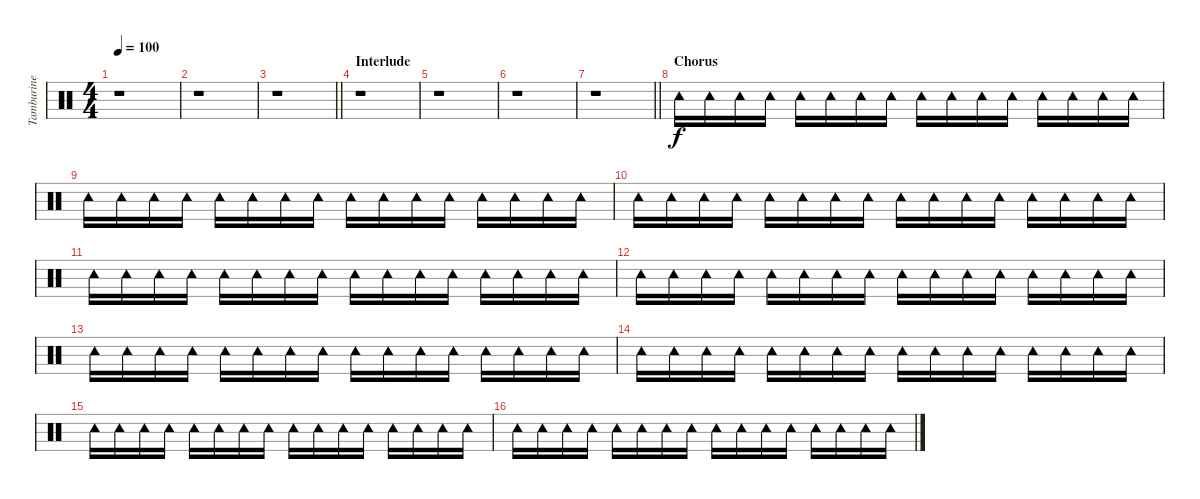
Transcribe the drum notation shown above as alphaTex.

\track ("Tamburine" "Tamburine") {instrument percussion}
\staff {score}
\articulation defaults
\ts (4 4)
\tempo 100
\clef neutral
\ks c
r.1{dy f} |
r.1 |
\barLineRight lightlight
r.1 |
\section ("" "Interlude")
r.1 |
r.1 |
r.1 |
\barLineRight lightlight
r.1 |
\section ("" "Chorus")
"Tambourine (hit)".16 "Tambourine (hit)".16 "Tambourine (hit)".16 "Tambourine (hit)".16 "Tambourine (hit)".16 "Tambourine (hit)".16 "Tambourine (hit)".16 "Tambourine (hit)".16 "Tambourine (hit)".16 "Tambourine (hit)".16 "Tambourine (hit)".16 "Tambourine (hit)".16 "Tambourine (hit)".16 "Tambourine (hit)".16 "Tambourine (hit)".16 "Tambourine (hit)".16 |
"Tambourine (hit)".16 "Tambourine (hit)".16 "Tambourine (hit)".16 "Tambourine (hit)".16 "Tambourine (hit)".16 "Tambourine (hit)".16 "Tambourine (hit)".16 "Tambourine (hit)".16 "Tambourine (hit)".16 "Tambourine (hit)".16 "Tambourine (hit)".16 "Tambourine (hit)".16 "Tambourine (hit)".16 "Tambourine (hit)".16 "Tambourine (hit)".16 "Tambourine (hit)".16 |
"Tambourine (hit)".16 "Tambourine (hit)".16 "Tambourine (hit)".16 "Tambourine (hit)".16 "Tambourine (hit)".16 "Tambourine (hit)".16 "Tambourine (hit)".16 "Tambourine (hit)".16 "Tambourine (hit)".16 "Tambourine (hit)".16 "Tambourine (hit)".16 "Tambourine (hit)".16 "Tambourine (hit)".16 "Tambourine (hit)".16 "Tambourine (hit)".16 "Tambourine (hit)".16 |
"Tambourine (hit)".16 "Tambourine (hit)".16 "Tambourine (hit)".16 "Tambourine (hit)".16 "Tambourine (hit)".16 "Tambourine (hit)".16 "Tambourine (hit)".16 "Tambourine (hit)".16 "Tambourine (hit)".16 "Tambourine (hit)".16 "Tambourine (hit)".16 "Tambourine (hit)".16 "Tambourine (hit)".16 "Tambourine (hit)".16 "Tambourine (hit)".16 "Tambourine (hit)".16 |
"Tambourine (hit)".16 "Tambourine (hit)".16 "Tambourine (hit)".16 "Tambourine (hit)".16 "Tambourine (hit)".16 "Tambourine (hit)".16 "Tambourine (hit)".16 "Tambourine (hit)".16 "Tambourine (hit)".16 "Tambourine (hit)".16 "Tambourine (hit)".16 "Tambourine (hit)".16 "Tambourine (hit)".16 "Tambourine (hit)".16 "Tambourine (hit)".16 "Tambourine (hit)".16 |
"Tambourine (hit)".16 "Tambourine (hit)".16 "Tambourine (hit)".16 "Tambourine (hit)".16 "Tambourine (hit)".16 "Tambourine (hit)".16 "Tambourine (hit)".16 "Tambourine (hit)".16 "Tambourine (hit)".16 "Tambourine (hit)".16 "Tambourine (hit)".16 "Tambourine (hit)".16 "Tambourine (hit)".16 "Tambourine (hit)".16 "Tambourine (hit)".16 "Tambourine (hit)".16 |
"Tambourine (hit)".16 "Tambourine (hit)".16 "Tambourine (hit)".16 "Tambourine (hit)".16 "Tambourine (hit)".16 "Tambourine (hit)".16 "Tambourine (hit)".16 "Tambourine (hit)".16 "Tambourine (hit)".16 "Tambourine (hit)".16 "Tambourine (hit)".16 "Tambourine (hit)".16 "Tambourine (hit)".16 "Tambourine (hit)".16 "Tambourine (hit)".16 "Tambourine (hit)".16 |
"Tambourine (hit)".16 "Tambourine (hit)".16 "Tambourine (hit)".16 "Tambourine (hit)".16 "Tambourine (hit)".16 "Tambourine (hit)".16 "Tambourine (hit)".16 "Tambourine (hit)".16 "Tambourine (hit)".16 "Tambourine (hit)".16 "Tambourine (hit)".16 "Tambourine (hit)".16 "Tambourine (hit)".16 "Tambourine (hit)".16 "Tambourine (hit)".16 "Tambourine (hit)".16 |
"Tambourine (hit)".16 "Tambourine (hit)".16 "Tambourine (hit)".16 "Tambourine (hit)".16 "Tambourine (hit)".16 "Tambourine (hit)".16 "Tambourine (hit)".16 "Tambourine (hit)".16 "Tambourine (hit)".16 "Tambourine (hit)".16 "Tambourine (hit)".16 "Tambourine (hit)".16 "Tambourine (hit)".16 "Tambourine (hit)".16 "Tambourine (hit)".16 "Tambourine (hit)".16
